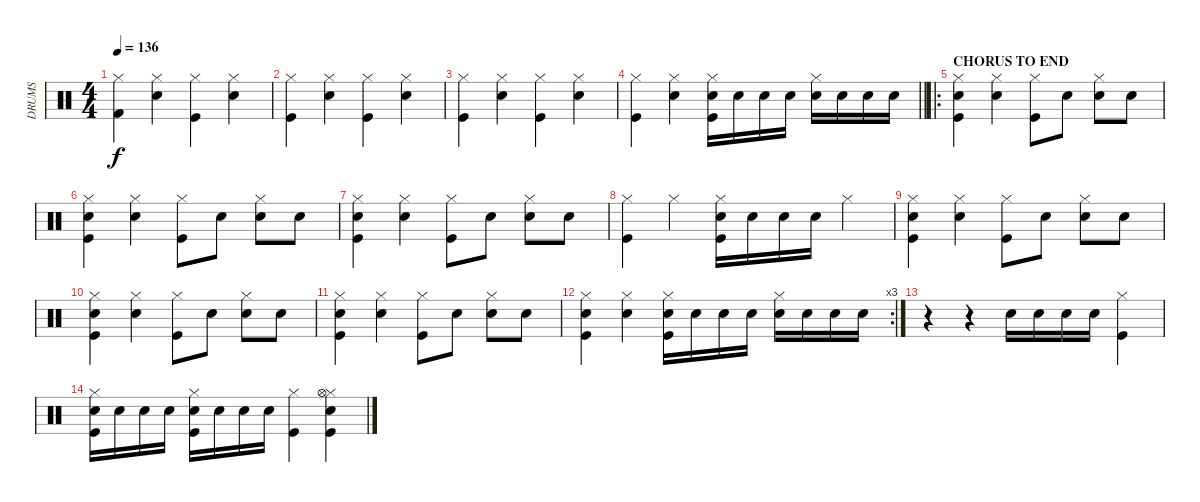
\track ("DRUMS" "DRUMS") {instrument percussion}
\staff {score}
\articulation defaults
\ts (4 4)
\tempo 136
\clef neutral
\ks c
("Hi-Hat (closed)" "Kick (hit) 2").4{dy f} ("Hi-Hat (closed)" "Snare (hit) 2").4 ("Hi-Hat (closed)" "Kick (hit)").4 ("Hi-Hat (closed)" "Snare (hit) 2").4 |
("Hi-Hat (closed)" "Kick (hit)").4 ("Hi-Hat (closed)" "Snare (hit) 2").4 ("Hi-Hat (closed)" "Kick (hit)").4 ("Hi-Hat (closed)" "Snare (hit) 2").4 |
("Hi-Hat (closed)" "Kick (hit)").4 ("Hi-Hat (closed)" "Snare (hit) 2").4 ("Hi-Hat (closed)" "Kick (hit)").4 ("Hi-Hat (closed)" "Snare (hit) 2").4 |
\barLineRight lightlight
("Hi-Hat (closed)" "Kick (hit)").4 ("Hi-Hat (closed)" "Snare (hit) 2").4 ("Hi-Hat (closed)" "Kick (hit)" "Snare (hit) 2").16 "Snare (hit) 2".16 "Snare (hit) 2".16 "Snare (hit) 2".16 ("Hi-Hat (closed)" "Snare (hit) 2").16 "Snare (hit) 2".16 "Snare (hit) 2".16 "Snare (hit) 2".16 |
\ro
\section ("" "CHORUS TO END")
("Hi-Hat (closed)" "Kick (hit)" "Snare (hit) 2").4 ("Hi-Hat (closed)" "Snare (hit) 2").4 ("Hi-Hat (closed)" "Kick (hit)").8 "Snare (hit) 2".8 ("Hi-Hat (closed)" "Snare (hit) 2").8 "Snare (hit) 2".8 |
("Hi-Hat (closed)" "Kick (hit)" "Snare (hit) 2").4 ("Hi-Hat (closed)" "Snare (hit) 2").4 ("Hi-Hat (closed)" "Kick (hit)").8 "Snare (hit) 2".8 ("Hi-Hat (closed)" "Snare (hit) 2").8 "Snare (hit) 2".8 |
("Hi-Hat (closed)" "Kick (hit)" "Snare (hit) 2").4 ("Hi-Hat (closed)" "Snare (hit) 2").4 ("Hi-Hat (closed)" "Kick (hit)").8 "Snare (hit) 2".8 ("Hi-Hat (closed)" "Snare (hit) 2").8 "Snare (hit) 2".8 |
("Hi-Hat (closed)" "Kick (hit)").4 "Hi-Hat (closed)".4 ("Hi-Hat (closed)" "Kick (hit)" "Snare (hit) 2").16 "Snare (hit) 2".16 "Snare (hit) 2".16 "Snare (hit) 2".16 "Hi-Hat (closed)".4 |
("Hi-Hat (closed)" "Kick (hit)" "Snare (hit) 2").4 ("Hi-Hat (closed)" "Snare (hit) 2").4 ("Hi-Hat (closed)" "Kick (hit)").8 "Snare (hit) 2".8 ("Hi-Hat (closed)" "Snare (hit) 2").8 "Snare (hit) 2".8 |
("Hi-Hat (closed)" "Kick (hit)" "Snare (hit) 2").4 ("Hi-Hat (closed)" "Snare (hit) 2").4 ("Hi-Hat (closed)" "Kick (hit)").8 "Snare (hit) 2".8 ("Hi-Hat (closed)" "Snare (hit) 2").8 "Snare (hit) 2".8 |
("Hi-Hat (closed)" "Kick (hit)" "Snare (hit) 2").4 ("Hi-Hat (closed)" "Snare (hit) 2").4 ("Hi-Hat (closed)" "Kick (hit)").8 "Snare (hit) 2".8 ("Hi-Hat (closed)" "Snare (hit) 2").8 "Snare (hit) 2".8 |
\rc 3
("Hi-Hat (closed)" "Kick (hit)" "Snare (hit) 2").4 ("Hi-Hat (closed)" "Snare (hit) 2").4 ("Hi-Hat (closed)" "Kick (hit)" "Snare (hit) 2").16 "Snare (hit) 2".16 "Snare (hit) 2".16 "Snare (hit) 2".16 ("Hi-Hat (closed)" "Snare (hit) 2").16 "Snare (hit) 2".16 "Snare (hit) 2".16 "Snare (hit) 2".16 |
r.4 r.4 "Snare (hit) 2".16 "Snare (hit) 2".16 "Snare (hit) 2".16 "Snare (hit) 2".16 ("Hi-Hat (closed)" "Kick (hit)").4 |
("Snare (hit) 2" "Hi-Hat (closed)" "Kick (hit)").16 "Snare (hit) 2".16 "Snare (hit) 2".16 "Snare (hit) 2".16 ("Snare (hit) 2" "Hi-Hat (closed)" "Kick (hit)").16 "Snare (hit) 2".16 "Snare (hit) 2".16 "Snare (hit) 2".16 ("Hi-Hat (closed)" "Kick (hit)").4 ("Snare (hit) 2" "Hi-Hat (closed)" "Kick (hit)" "Hi-Hat (open)").4
